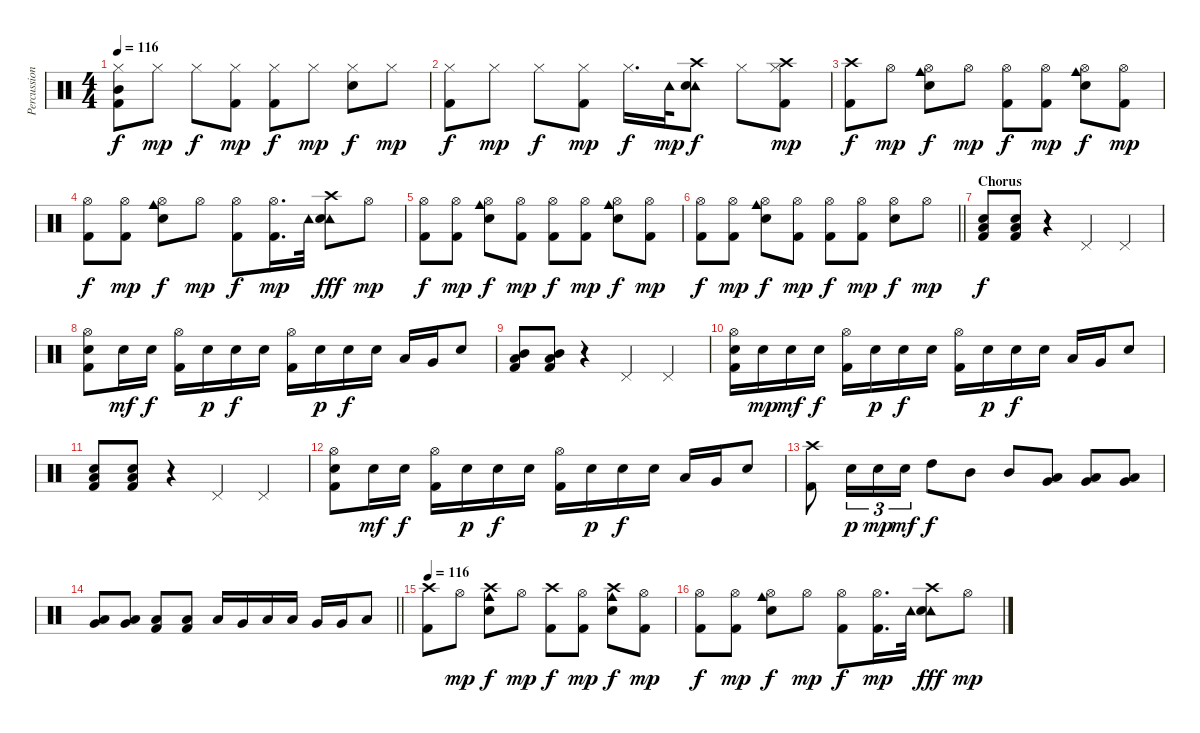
\track ("Percussion (Peter)" "Percussion") {instrument percussion}
\staff {score}
\articulation defaults
\ts (4 4)
\tempo 116
\clef neutral
\ks c
("Hi-Hat (closed)" "Mid Tom (hit)" "Kick (hit) 2").8{dy f} "Hi-Hat (closed)".8{dy mp} "Hi-Hat (closed)".8{dy f} ("Hi-Hat (closed)" "Kick (hit) 2").8{dy mp} ("Hi-Hat (closed)" "Kick (hit) 2").8{dy f} "Hi-Hat (closed)".8{dy mp} ("Hi-Hat (closed)" "Snare (hit) 2").8{dy f} "Hi-Hat (closed)".8{dy mp} |
("Hi-Hat (closed)" "Kick (hit) 2").8{dy f} "Hi-Hat (closed)".8{dy mp} "Hi-Hat (closed)".8{dy f} ("Hi-Hat (closed)" "Kick (hit) 2").8{dy mp} "Hi-Hat (closed)".16{d dy f} "Tambourine (hit)".32{dy mp} ("Crash high (hit)" "Tambourine (hit)" "Snare (hit) 2").8{dy f} "Hi-Hat (closed)".8 ("Crash high (hit)" "Hi-Hat (closed)" "Kick (hit) 2").8{dy mp} |
("Crash high (hit)" "Kick (hit) 2").8{dy f} "Hi-Hat (open)".8{dy mp} ("Cowbell medium (hit)" "Hi-Hat (open)" "Snare (hit) 2").8{dy f} "Hi-Hat (open)".8{dy mp} ("Hi-Hat (open)" "Kick (hit) 2").8{dy f} ("Hi-Hat (open)" "Kick (hit) 2").8{dy mp} ("Cowbell medium (hit)" "Hi-Hat (open)" "Snare (hit) 2").8{dy f} ("Hi-Hat (open)" "Kick (hit) 2").8{dy mp} |
("Hi-Hat (open)" "Kick (hit) 2").8{dy f} ("Hi-Hat (open)" "Kick (hit) 2").8{dy mp} ("Cowbell medium (hit)" "Hi-Hat (open)" "Snare (hit) 2").8{dy f} "Hi-Hat (open)".8{dy mp} ("Hi-Hat (open)" "Kick (hit) 2").8{dy f} ("Hi-Hat (open)" "Kick (hit) 2").16{d dy mp} "Tambourine (hit)".32 ("Crash high (hit)" "Tambourine (hit)" "Snare (hit) 2").8{dy fff} "Hi-Hat (open)".8{dy mp} |
("Hi-Hat (open)" "Kick (hit) 2").8{dy f} ("Hi-Hat (open)" "Kick (hit) 2").8{dy mp} ("Cowbell medium (hit)" "Hi-Hat (open)" "Snare (hit) 2").8{dy f} ("Hi-Hat (open)" "Kick (hit) 2").8{dy mp} ("Hi-Hat (open)" "Kick (hit) 2").8{dy f} ("Hi-Hat (open)" "Kick (hit) 2").8{dy mp} ("Cowbell medium (hit)" "Hi-Hat (open)" "Snare (hit) 2").8{dy f} ("Hi-Hat (open)" "Kick (hit) 2").8{dy mp} |
\barLineRight lightlight
("Hi-Hat (open)" "Kick (hit) 2").8{dy f} ("Hi-Hat (open)" "Kick (hit) 2").8{dy mp} ("Cowbell medium (hit)" "Hi-Hat (open)" "Snare (hit) 2").8{dy f} ("Hi-Hat (open)" "Kick (hit) 2").8{dy mp} ("Hi-Hat (open)" "Kick (hit) 2").8{dy f} ("Hi-Hat (open)" "Kick (hit) 2").8{dy mp} ("Hi-Hat (open)" "Snare (hit) 2").8{dy f} "Hi-Hat (open)".8{dy mp} |
\section ("" "Chorus")
("Low Tom (hit)" "Snare (hit) 2" "Kick (hit) 2").8{dy f} ("Low Tom (hit)" "Snare (hit) 2" "Kick (hit) 2").8 r.4 "Pedal Hi-Hat (hit)".4 "Pedal Hi-Hat (hit)".4 |
("Hi-Hat (open)" "Snare (hit) 2" "Kick (hit) 2").8 "Snare (hit) 2".16{dy mf} "Snare (hit) 2".16{dy f} ("Hi-Hat (open)" "Kick (hit) 2").16 "Snare (hit) 2".16{dy p} "Snare (hit) 2".16{dy f} "Snare (hit) 2".16 ("Hi-Hat (open)" "Kick (hit) 2").16 "Snare (hit) 2".16{dy p} "Snare (hit) 2".16{dy f} "Snare (hit) 2".16 "Low Tom (hit)".16 "Very Low Tom (hit)".16 "Snare (hit) 2".8 |
("Mid Tom (hit)" "Low Tom (hit)" "Kick (hit) 2").8 ("Mid Tom (hit)" "Low Tom (hit)" "Kick (hit) 2").8 r.4 "Pedal Hi-Hat (hit)".4 "Pedal Hi-Hat (hit)".4 |
("Hi-Hat (open)" "Snare (hit) 2" "Kick (hit) 2").16 "Snare (hit) 2".16{dy mp} "Snare (hit) 2".16{dy mf} "Snare (hit) 2".16{dy f} ("Hi-Hat (open)" "Kick (hit) 2").16 "Snare (hit) 2".16{dy p} "Snare (hit) 2".16{dy f} "Snare (hit) 2".16 ("Hi-Hat (open)" "Kick (hit) 2").16 "Snare (hit) 2".16{dy p} "Snare (hit) 2".16{dy f} "Snare (hit) 2".16 "Low Tom (hit)".16 "Very Low Tom (hit)".16 "Snare (hit) 2".8 |
("Low Tom (hit)" "Snare (hit) 2" "Kick (hit) 2").8 ("Low Tom (hit)" "Snare (hit) 2" "Kick (hit) 2").8 r.4 "Pedal Hi-Hat (hit)".4 "Pedal Hi-Hat (hit)".4 |
("Hi-Hat (open)" "Snare (hit) 2" "Kick (hit) 2").8 "Snare (hit) 2".16{dy mf} "Snare (hit) 2".16{dy f} ("Hi-Hat (open)" "Kick (hit) 2").16 "Snare (hit) 2".16{dy p} "Snare (hit) 2".16{dy f} "Snare (hit) 2".16 ("Hi-Hat (open)" "Kick (hit) 2").16 "Snare (hit) 2".16{dy p} "Snare (hit) 2".16{dy f} "Snare (hit) 2".16 "Low Tom (hit)".16 "Very Low Tom (hit)".16 "Snare (hit) 2".8 |
("Crash high (hit)" "Kick (hit) 2").8 "Snare (hit) 2".16{tu (3 2) dy p} "Snare (hit) 2".16{tu (3 2) dy mp} "Snare (hit) 2".16{tu (3 2) dy mf} "High Tom (hit)".8{dy f} "Mid Tom (hit)".8 "Mid Tom (hit)".8 ("Low Tom (hit)" "Very Low Tom (hit)").8 ("Low Tom (hit)" "Very Low Tom (hit)").8 ("Low Floor Tom (hit)" "Very Low Tom (hit)").8 |
\barLineRight lightlight
("Very Low Tom (hit)" "Low Floor Tom (hit)").8 ("Very Low Tom (hit)" "Low Floor Tom (hit)").8 ("Low Floor Tom (hit)" "Kick (hit) 2").8 ("Low Floor Tom (hit)" "Kick (hit) 2").8 "Low Tom (hit)".16 "Very Low Tom (hit)".16 "Low Floor Tom (hit)".16 "Low Tom (hit)".16 "Very Low Tom (hit)".16 "Very Low Tom (hit)".16 "Low Floor Tom (hit)".8 |
\tempo 116
("Crash high (hit)" "Kick (hit) 2").8 "Hi-Hat (open)".8{dy mp} ("Cowbell medium (hit)" "Crash high (hit)" "Snare (hit) 2").8{dy f} "Hi-Hat (open)".8{dy mp} ("Crash high (hit)" "Kick (hit) 2").8{dy f} ("Hi-Hat (open)" "Kick (hit) 2").8{dy mp} ("Cowbell medium (hit)" "Crash high (hit)" "Snare (hit) 2").8{dy f} ("Hi-Hat (open)" "Kick (hit) 2").8{dy mp} |
("Hi-Hat (open)" "Kick (hit) 2").8{dy f} ("Hi-Hat (open)" "Kick (hit) 2").8{dy mp} ("Cowbell medium (hit)" "Hi-Hat (open)" "Snare (hit) 2").8{dy f} "Hi-Hat (open)".8{dy mp} ("Hi-Hat (open)" "Kick (hit) 2").8{dy f} ("Hi-Hat (open)" "Kick (hit) 2").16{d dy mp} "Tambourine (hit)".32 ("Crash high (hit)" "Tambourine (hit)" "Snare (hit) 2").8{dy fff} "Hi-Hat (open)".8{dy mp}
